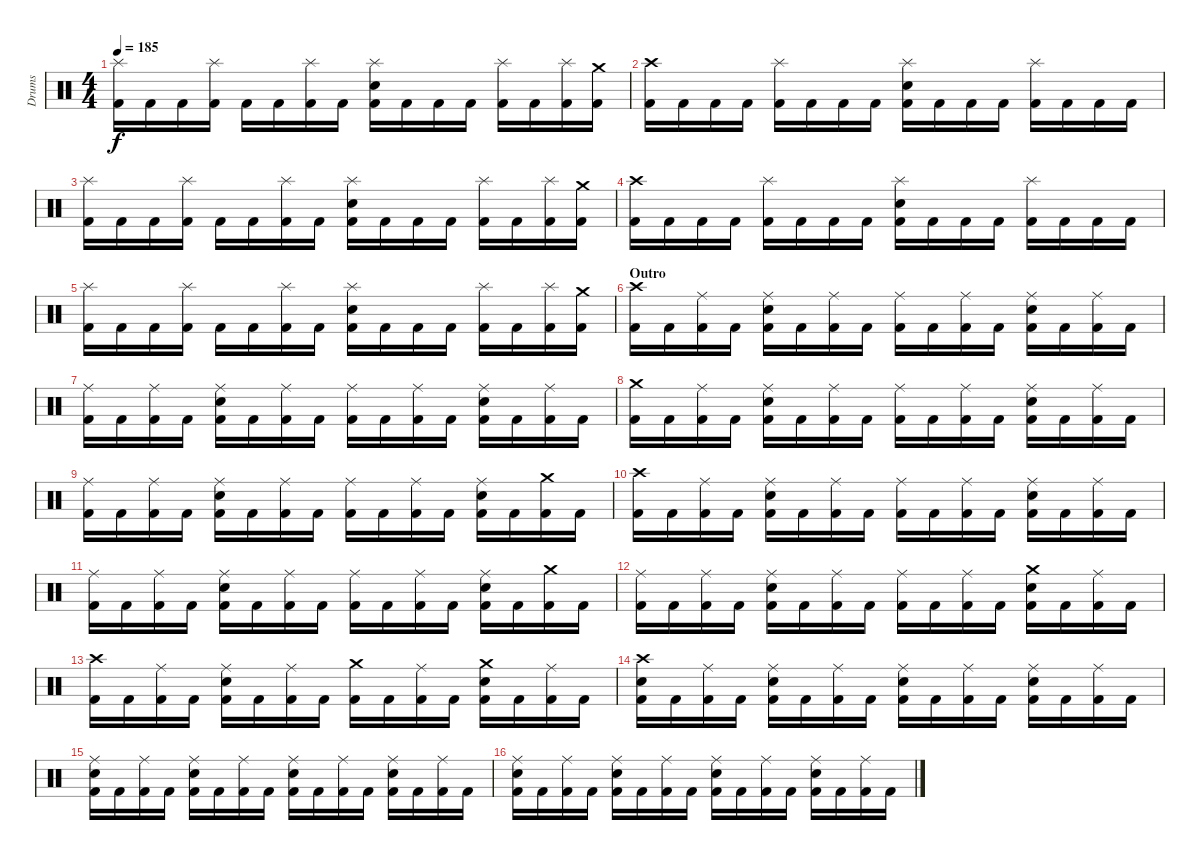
\track ("Drums" "Drums") {instrument percussion}
\staff {score}
\articulation defaults
\ts (4 4)
\tempo 185
\clef neutral
\ks c
("Splash (hit)" "Kick (hit) 2").16{dy f} "Kick (hit) 2".16 "Kick (hit) 2".16 ("Splash (hit)" "Kick (hit) 2").16 "Kick (hit) 2".16 "Kick (hit) 2".16 ("Splash (hit)" "Kick (hit) 2").16 "Kick (hit) 2".16 ("Splash (hit)" "Electric Snare (hit)" "Kick (hit) 2").16 "Kick (hit) 2".16 "Kick (hit) 2".16 "Kick (hit) 2".16 ("Splash (hit)" "Kick (hit) 2").16 "Kick (hit) 2".16 ("Splash (hit)" "Kick (hit) 2").16 ("Crash medium (hit)" "Kick (hit) 2").16 |
("Crash high (hit)" "Kick (hit) 2").16 "Kick (hit) 2".16 "Kick (hit) 2".16 "Kick (hit) 2".16 ("Splash (hit)" "Kick (hit) 2").16 "Kick (hit) 2".16 "Kick (hit) 2".16 "Kick (hit) 2".16 ("Splash (hit)" "Electric Snare (hit)" "Kick (hit) 2").16 "Kick (hit) 2".16 "Kick (hit) 2".16 "Kick (hit) 2".16 ("Splash (hit)" "Kick (hit) 2").16 "Kick (hit) 2".16 "Kick (hit) 2".16 "Kick (hit) 2".16 |
("Splash (hit)" "Kick (hit) 2").16 "Kick (hit) 2".16 "Kick (hit) 2".16 ("Splash (hit)" "Kick (hit) 2").16 "Kick (hit) 2".16 "Kick (hit) 2".16 ("Splash (hit)" "Kick (hit) 2").16 "Kick (hit) 2".16 ("Splash (hit)" "Electric Snare (hit)" "Kick (hit) 2").16 "Kick (hit) 2".16 "Kick (hit) 2".16 "Kick (hit) 2".16 ("Splash (hit)" "Kick (hit) 2").16 "Kick (hit) 2".16 ("Splash (hit)" "Kick (hit) 2").16 ("Crash medium (hit)" "Kick (hit) 2").16 |
("Crash high (hit)" "Kick (hit) 2").16 "Kick (hit) 2".16 "Kick (hit) 2".16 "Kick (hit) 2".16 ("Splash (hit)" "Kick (hit) 2").16 "Kick (hit) 2".16 "Kick (hit) 2".16 "Kick (hit) 2".16 ("Splash (hit)" "Electric Snare (hit)" "Kick (hit) 2").16 "Kick (hit) 2".16 "Kick (hit) 2".16 "Kick (hit) 2".16 ("Splash (hit)" "Kick (hit) 2").16 "Kick (hit) 2".16 "Kick (hit) 2".16 "Kick (hit) 2".16 |
("Splash (hit)" "Kick (hit) 2").16 "Kick (hit) 2".16 "Kick (hit) 2".16 ("Splash (hit)" "Kick (hit) 2").16 "Kick (hit) 2".16 "Kick (hit) 2".16 ("Splash (hit)" "Kick (hit) 2").16 "Kick (hit) 2".16 ("Splash (hit)" "Electric Snare (hit)" "Kick (hit) 2").16 "Kick (hit) 2".16 "Kick (hit) 2".16 "Kick (hit) 2".16 ("Splash (hit)" "Kick (hit) 2").16 "Kick (hit) 2".16 ("Splash (hit)" "Kick (hit) 2").16 ("Crash medium (hit)" "Kick (hit) 2").16 |
\section ("" "Outro")
("Crash high (hit)" "Kick (hit) 2").16 "Kick (hit) 2".16 ("Ride (middle)" "Kick (hit) 2").16 "Kick (hit) 2".16 ("Ride (middle)" "Electric Snare (hit)" "Kick (hit) 2").16 "Kick (hit) 2".16 ("Ride (middle)" "Kick (hit) 2").16 "Kick (hit) 2".16 ("Ride (middle)" "Kick (hit) 2").16 "Kick (hit) 2".16 ("Ride (middle)" "Kick (hit) 2").16 "Kick (hit) 2".16 ("Ride (middle)" "Electric Snare (hit)" "Kick (hit) 2").16 "Kick (hit) 2".16 ("Ride (middle)" "Kick (hit) 2").16 "Kick (hit) 2".16 |
("Ride (middle)" "Kick (hit) 2").16 "Kick (hit) 2".16 ("Ride (middle)" "Kick (hit) 2").16 "Kick (hit) 2".16 ("Ride (middle)" "Electric Snare (hit)" "Kick (hit) 2").16 "Kick (hit) 2".16 ("Ride (middle)" "Kick (hit) 2").16 "Kick (hit) 2".16 ("Ride (middle)" "Kick (hit) 2").16 "Kick (hit) 2".16 ("Ride (middle)" "Kick (hit) 2").16 "Kick (hit) 2".16 ("Ride (middle)" "Electric Snare (hit)" "Kick (hit) 2").16 "Kick (hit) 2".16 ("Ride (middle)" "Kick (hit) 2").16 "Kick (hit) 2".16 |
("Crash medium (hit)" "Kick (hit) 2").16 "Kick (hit) 2".16 ("Ride (middle)" "Kick (hit) 2").16 "Kick (hit) 2".16 ("Ride (middle)" "Electric Snare (hit)" "Kick (hit) 2").16 "Kick (hit) 2".16 ("Ride (middle)" "Kick (hit) 2").16 "Kick (hit) 2".16 ("Ride (middle)" "Kick (hit) 2").16 "Kick (hit) 2".16 ("Ride (middle)" "Kick (hit) 2").16 "Kick (hit) 2".16 ("Ride (middle)" "Electric Snare (hit)" "Kick (hit) 2").16 "Kick (hit) 2".16 ("Ride (middle)" "Kick (hit) 2").16 "Kick (hit) 2".16 |
("Ride (middle)" "Kick (hit) 2").16 "Kick (hit) 2".16 ("Ride (middle)" "Kick (hit) 2").16 "Kick (hit) 2".16 ("Ride (middle)" "Electric Snare (hit)" "Kick (hit) 2").16 "Kick (hit) 2".16 ("Ride (middle)" "Kick (hit) 2").16 "Kick (hit) 2".16 ("Ride (middle)" "Kick (hit) 2").16 "Kick (hit) 2".16 ("Ride (middle)" "Kick (hit) 2").16 "Kick (hit) 2".16 ("Ride (middle)" "Electric Snare (hit)" "Kick (hit) 2").16 "Kick (hit) 2".16 ("Crash medium (hit)" "Kick (hit) 2").16 "Kick (hit) 2".16 |
("Crash high (hit)" "Kick (hit) 2").16 "Kick (hit) 2".16 ("Ride (middle)" "Kick (hit) 2").16 "Kick (hit) 2".16 ("Ride (middle)" "Electric Snare (hit)" "Kick (hit) 2").16 "Kick (hit) 2".16 ("Ride (middle)" "Kick (hit) 2").16 "Kick (hit) 2".16 ("Ride (middle)" "Kick (hit) 2").16 "Kick (hit) 2".16 ("Ride (middle)" "Kick (hit) 2").16 "Kick (hit) 2".16 ("Ride (middle)" "Electric Snare (hit)" "Kick (hit) 2").16 "Kick (hit) 2".16 ("Ride (middle)" "Kick (hit) 2").16 "Kick (hit) 2".16 |
("Ride (middle)" "Kick (hit) 2").16 "Kick (hit) 2".16 ("Ride (middle)" "Kick (hit) 2").16 "Kick (hit) 2".16 ("Ride (middle)" "Electric Snare (hit)" "Kick (hit) 2").16 "Kick (hit) 2".16 ("Ride (middle)" "Kick (hit) 2").16 "Kick (hit) 2".16 ("Ride (middle)" "Kick (hit) 2").16 "Kick (hit) 2".16 ("Ride (middle)" "Kick (hit) 2").16 "Kick (hit) 2".16 ("Ride (middle)" "Electric Snare (hit)" "Kick (hit) 2").16 "Kick (hit) 2".16 ("Crash medium (hit)" "Kick (hit) 2").16 "Kick (hit) 2".16 |
("Ride (middle)" "Kick (hit) 2").16 "Kick (hit) 2".16 ("Ride (middle)" "Kick (hit) 2").16 "Kick (hit) 2".16 ("Ride (middle)" "Electric Snare (hit)" "Kick (hit) 2").16 "Kick (hit) 2".16 ("Ride (middle)" "Kick (hit) 2").16 "Kick (hit) 2".16 ("Ride (middle)" "Kick (hit) 2").16 "Kick (hit) 2".16 ("Ride (middle)" "Kick (hit) 2").16 "Kick (hit) 2".16 ("Crash medium (hit)" "Electric Snare (hit)" "Kick (hit) 2").16 "Kick (hit) 2".16 ("Ride (middle)" "Kick (hit) 2").16 "Kick (hit) 2".16 |
("Crash high (hit)" "Kick (hit) 2").16 "Kick (hit) 2".16 ("Ride (middle)" "Kick (hit) 2").16 "Kick (hit) 2".16 ("Ride (middle)" "Electric Snare (hit)" "Kick (hit) 2").16 "Kick (hit) 2".16 ("Ride (middle)" "Kick (hit) 2").16 "Kick (hit) 2".16 ("Crash medium (hit)" "Kick (hit) 2").16 "Kick (hit) 2".16 ("Ride (middle)" "Kick (hit) 2").16 "Kick (hit) 2".16 ("Crash medium (hit)" "Electric Snare (hit)" "Kick (hit) 2").16 "Kick (hit) 2".16 ("Ride (middle)" "Kick (hit) 2").16 "Kick (hit) 2".16 |
("Crash high (hit)" "Electric Snare (hit)" "Kick (hit) 2").16 "Kick (hit) 2".16 ("Ride (middle)" "Kick (hit) 2").16 "Kick (hit) 2".16 ("Ride (middle)" "Electric Snare (hit)" "Kick (hit) 2").16 "Kick (hit) 2".16 ("Ride (middle)" "Kick (hit) 2").16 "Kick (hit) 2".16 ("Ride (middle)" "Electric Snare (hit)" "Kick (hit) 2").16 "Kick (hit) 2".16 ("Ride (middle)" "Kick (hit) 2").16 "Kick (hit) 2".16 ("Ride (middle)" "Electric Snare (hit)" "Kick (hit) 2").16 "Kick (hit) 2".16 ("Ride (middle)" "Kick (hit) 2").16 "Kick (hit) 2".16 |
("Ride (middle)" "Electric Snare (hit)" "Kick (hit) 2").16 "Kick (hit) 2".16 ("Ride (middle)" "Kick (hit) 2").16 "Kick (hit) 2".16 ("Ride (middle)" "Electric Snare (hit)" "Kick (hit) 2").16 "Kick (hit) 2".16 ("Ride (middle)" "Kick (hit) 2").16 "Kick (hit) 2".16 ("Ride (middle)" "Electric Snare (hit)" "Kick (hit) 2").16 "Kick (hit) 2".16 ("Ride (middle)" "Kick (hit) 2").16 "Kick (hit) 2".16 ("Ride (middle)" "Electric Snare (hit)" "Kick (hit) 2").16 "Kick (hit) 2".16 ("Ride (middle)" "Kick (hit) 2").16 "Kick (hit) 2".16 |
("Ride (middle)" "Electric Snare (hit)" "Kick (hit) 2").16 "Kick (hit) 2".16 ("Ride (middle)" "Kick (hit) 2").16 "Kick (hit) 2".16 ("Ride (middle)" "Electric Snare (hit)" "Kick (hit) 2").16 "Kick (hit) 2".16 ("Ride (middle)" "Kick (hit) 2").16 "Kick (hit) 2".16 ("Ride (middle)" "Electric Snare (hit)" "Kick (hit) 2").16 "Kick (hit) 2".16 ("Ride (middle)" "Kick (hit) 2").16 "Kick (hit) 2".16 ("Ride (middle)" "Electric Snare (hit)" "Kick (hit) 2").16 "Kick (hit) 2".16 ("Ride (middle)" "Kick (hit) 2").16 "Kick (hit) 2".16
